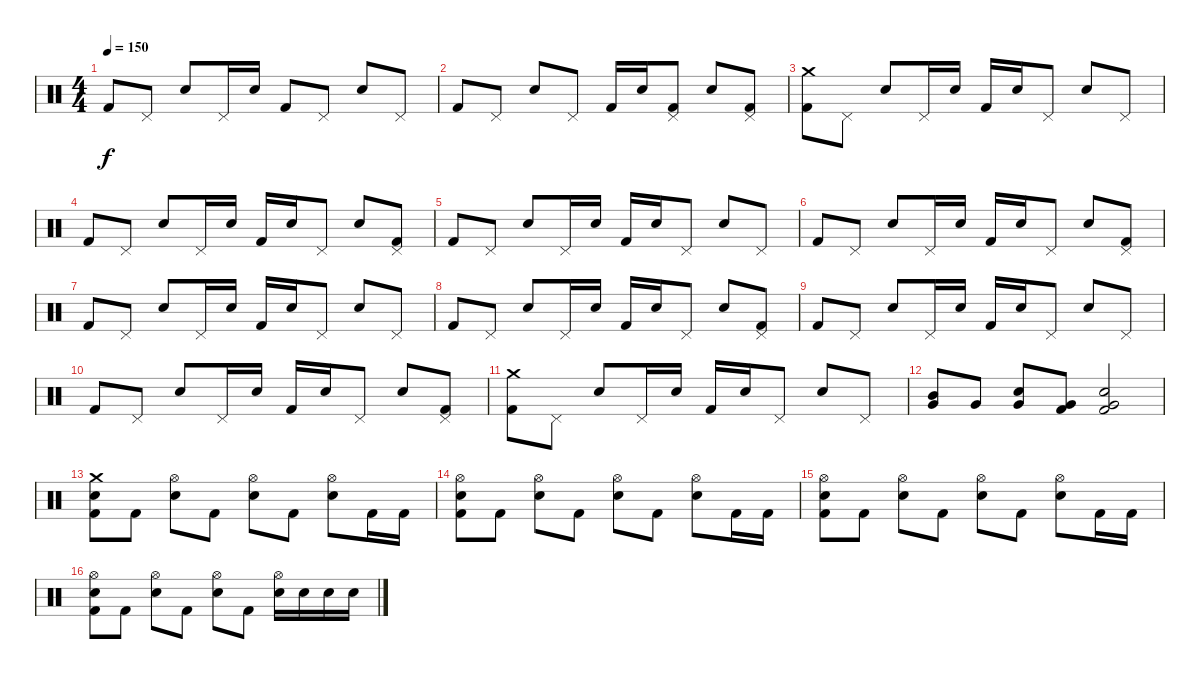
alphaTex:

\track "" {instrument percussion}
\staff {score}
\articulation defaults
\ts (4 4)
\tempo 150
\clef neutral
\ks c "Kick (hit) 2".8{dy f} "Pedal Hi-Hat (hit)".8 "Snare (hit) 2".8 "Pedal Hi-Hat (hit)".16 "Snare (hit) 2".16 "Kick (hit) 2".8 "Pedal Hi-Hat (hit)".8 "Snare (hit) 2".8 "Pedal Hi-Hat (hit)".8
|
"Kick (hit) 2".8 "Pedal Hi-Hat (hit)".8 "Snare (hit) 2".8 "Pedal Hi-Hat (hit)".8 "Kick (hit) 2".16 "Snare (hit) 2".16 ("Pedal Hi-Hat (hit)" "Kick (hit) 2").8 "Snare (hit) 2".8 ("Pedal Hi-Hat (hit)" "Kick (hit) 2").8 |
("Crash medium (hit)" "Kick (hit) 2").8 "Pedal Hi-Hat (hit)".8 "Snare (hit) 2".8 "Pedal Hi-Hat (hit)".16 "Snare (hit) 2".16 "Kick (hit) 2".16 "Snare (hit) 2".16 "Pedal Hi-Hat (hit)".8 "Snare (hit) 2".8 "Pedal Hi-Hat (hit)".8 |
"Kick (hit) 2".8 "Pedal Hi-Hat (hit)".8 "Snare (hit) 2".8 "Pedal Hi-Hat (hit)".16 "Snare (hit) 2".16 "Kick (hit) 2".16 "Snare (hit) 2".16 "Pedal Hi-Hat (hit)".8 "Snare (hit) 2".8 ("Pedal Hi-Hat (hit)" "Kick (hit) 2").8 |
"Kick (hit) 2".8 "Pedal Hi-Hat (hit)".8 "Snare (hit) 2".8 "Pedal Hi-Hat (hit)".16 "Snare (hit) 2".16 "Kick (hit) 2".16 "Snare (hit) 2".16 "Pedal Hi-Hat (hit)".8 "Snare (hit) 2".8 "Pedal Hi-Hat (hit)".8 |
"Kick (hit) 2".8 "Pedal Hi-Hat (hit)".8 "Snare (hit) 2".8 "Pedal Hi-Hat (hit)".16 "Snare (hit) 2".16 "Kick (hit) 2".16 "Snare (hit) 2".16 "Pedal Hi-Hat (hit)".8 "Snare (hit) 2".8 ("Pedal Hi-Hat (hit)" "Kick (hit) 2").8 |
"Kick (hit) 2".8 "Pedal Hi-Hat (hit)".8 "Snare (hit) 2".8 "Pedal Hi-Hat (hit)".16 "Snare (hit) 2".16 "Kick (hit) 2".16 "Snare (hit) 2".16 "Pedal Hi-Hat (hit)".8 "Snare (hit) 2".8 "Pedal Hi-Hat (hit)".8 |
"Kick (hit) 2".8 "Pedal Hi-Hat (hit)".8 "Snare (hit) 2".8 "Pedal Hi-Hat (hit)".16 "Snare (hit) 2".16 "Kick (hit) 2".16 "Snare (hit) 2".16 "Pedal Hi-Hat (hit)".8 "Snare (hit) 2".8 ("Pedal Hi-Hat (hit)" "Kick (hit) 2").8 |
"Kick (hit) 2".8 "Pedal Hi-Hat (hit)".8 "Snare (hit) 2".8 "Pedal Hi-Hat (hit)".16 "Snare (hit) 2".16 "Kick (hit) 2".16 "Snare (hit) 2".16 "Pedal Hi-Hat (hit)".8 "Snare (hit) 2".8 "Pedal Hi-Hat (hit)".8 |
"Kick (hit) 2".8 "Pedal Hi-Hat (hit)".8 "Snare (hit) 2".8 "Pedal Hi-Hat (hit)".16 "Snare (hit) 2".16 "Kick (hit) 2".16 "Snare (hit) 2".16 "Pedal Hi-Hat (hit)".8 "Snare (hit) 2".8 ("Pedal Hi-Hat (hit)" "Kick (hit) 2").8 |
("Crash medium (hit)" "Kick (hit) 2").8 "Pedal Hi-Hat (hit)".8 "Snare (hit) 2".8 "Pedal Hi-Hat (hit)".16 "Snare (hit) 2".16 "Kick (hit) 2".16 "Snare (hit) 2".16 "Pedal Hi-Hat (hit)".8 "Snare (hit) 2".8 "Pedal Hi-Hat (hit)".8 |
("Mid Tom (hit)" "Very Low Tom (hit)").8 "Very Low Tom (hit)".8 ("Snare (hit) 2" "Very Low Tom (hit)").8 ("Very Low Tom (hit)" "Kick (hit) 2").8 ("Snare (hit) 2" "Very Low Tom (hit)" "Kick (hit) 2").2 |
("Crash medium (hit)" "Snare (hit) 2" "Kick (hit) 2").8 "Kick (hit) 2".8 ("Hi-Hat (open)" "Snare (hit) 2").8 "Kick (hit) 2".8 ("Hi-Hat (open)" "Snare (hit) 2").8 "Kick (hit) 2".8 ("Hi-Hat (open)" "Snare (hit) 2").8 "Kick (hit) 2".16 "Kick (hit) 2".16 |
("Hi-Hat (open)" "Snare (hit) 2" "Kick (hit) 2").8 "Kick (hit) 2".8 ("Hi-Hat (open)" "Snare (hit) 2").8 "Kick (hit) 2".8 ("Hi-Hat (open)" "Snare (hit) 2").8 "Kick (hit) 2".8 ("Hi-Hat (open)" "Snare (hit) 2").8 "Kick (hit) 2".16 "Kick (hit) 2".16 |
("Hi-Hat (open)" "Snare (hit) 2" "Kick (hit) 2").8 "Kick (hit) 2".8 ("Hi-Hat (open)" "Snare (hit) 2").8 "Kick (hit) 2".8 ("Hi-Hat (open)" "Snare (hit) 2").8 "Kick (hit) 2".8 ("Hi-Hat (open)" "Snare (hit) 2").8 "Kick (hit) 2".16 "Kick (hit) 2".16 |
("Hi-Hat (open)" "Snare (hit) 2" "Kick (hit) 2").8 "Kick (hit) 2".8 ("Hi-Hat (open)" "Snare (hit) 2").8 "Kick (hit) 2".8 ("Hi-Hat (open)" "Snare (hit) 2").8 "Kick (hit) 2".8 ("Hi-Hat (open)" "Snare (hit) 2").16 "Snare (hit) 2".16 "Snare (hit) 2".16 "Snare (hit) 2".16
